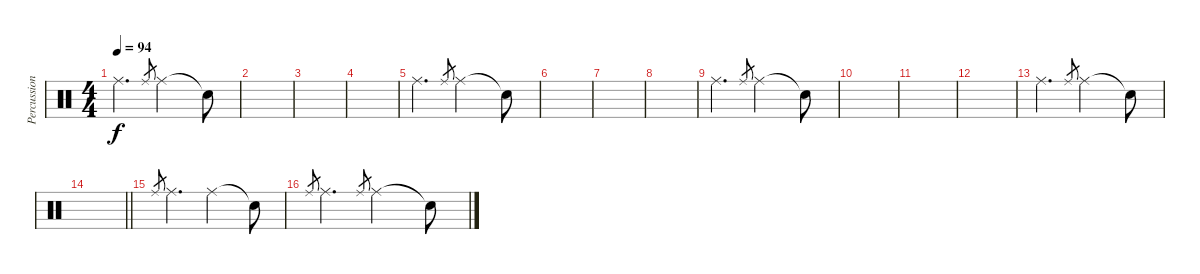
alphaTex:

\track ("Percussion" "Percussion") {instrument percussion}
\staff {score}
\articulation defaults
\ts (4 4)
\tempo 94
\clef neutral
\ks c "Ride (middle)".4{d dy f} "Ride (middle)".8{gr} "Ride (middle)".2 "Snare (hit)"{t}.8
|
|
|
|
"Ride (middle)".4{d} "Ride (middle)".8{gr} "Ride (middle)".2 "Snare (hit)"{t}.8 |
|
|
|
"Ride (middle)".4{d} "Ride (middle)".8{gr} "Ride (middle)".2 "Snare (hit)"{t}.8 |
|
|
|
"Ride (middle)".4{d} "Ride (middle)".8{gr} "Ride (middle)".2 "Snare (hit)"{t}.8 |
\barLineRight lightlight
|
\section ("" "")
"Ride (middle)".8{gr} "Ride (middle)".4{d} "Ride (middle)".2 "Snare (hit)"{t}.8 |
"Ride (middle)".8{gr} "Ride (middle)".4{d} "Ride (middle)".8{gr} "Ride (middle)".2 "Snare (hit)"{t}.8
